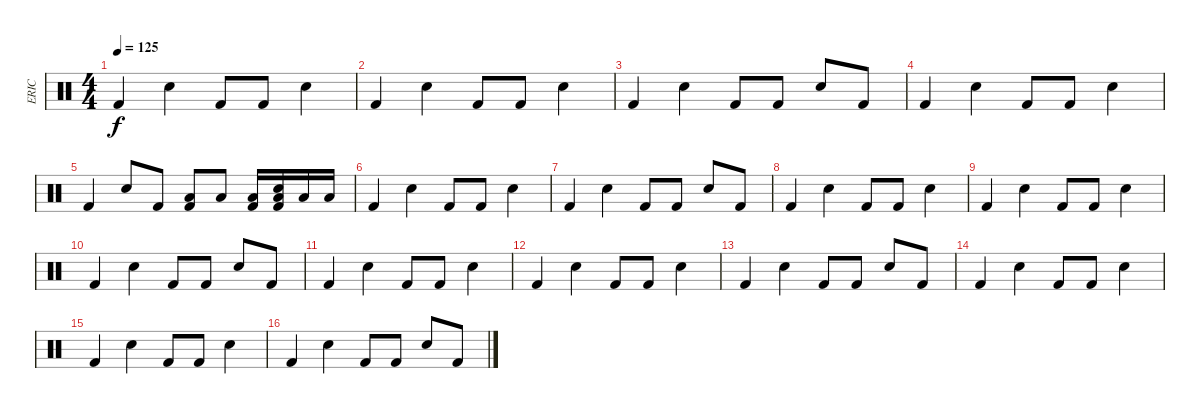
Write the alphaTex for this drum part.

\track ("ERIC" "ERIC") {instrument percussion}
\staff {score}
\articulation defaults
\ts (4 4)
\tempo 125
\clef neutral
\ks c "Kick (hit) 2".4{dy f} "Electric Snare (hit)".4 "Kick (hit) 2".8 "Kick (hit) 2".8 "Electric Snare (hit)".4
|
"Kick (hit) 2".4 "Electric Snare (hit)".4 "Kick (hit) 2".8 "Kick (hit) 2".8 "Electric Snare (hit)".4 |
"Kick (hit) 2".4 "Electric Snare (hit)".4 "Kick (hit) 2".8 "Kick (hit) 2".8 "Electric Snare (hit)".8 "Kick (hit) 2".8 |
"Kick (hit) 2".4 "Electric Snare (hit)".4 "Kick (hit) 2".8 "Kick (hit) 2".8 "Electric Snare (hit)".4 |
"Kick (hit) 2".4 "Electric Snare (hit)".8 "Kick (hit) 2".8 ("Low Floor Tom (hit)" "Kick (hit) 2").8 "Low Floor Tom (hit)".8 ("Low Floor Tom (hit)" "Kick (hit) 2").16 ("Electric Snare (hit)" "Low Floor Tom (hit)" "Kick (hit) 2").16 "Low Tom (hit)".16 "Low Floor Tom (hit)".16 |
"Kick (hit) 2".4 "Electric Snare (hit)".4 "Kick (hit) 2".8 "Kick (hit) 2".8 "Electric Snare (hit)".4 |
"Kick (hit) 2".4 "Electric Snare (hit)".4 "Kick (hit) 2".8 "Kick (hit) 2".8 "Electric Snare (hit)".8 "Kick (hit) 2".8 |
"Kick (hit) 2".4 "Electric Snare (hit)".4 "Kick (hit) 2".8 "Kick (hit) 2".8 "Electric Snare (hit)".4 |
"Kick (hit) 2".4 "Electric Snare (hit)".4 "Kick (hit) 2".8 "Kick (hit) 2".8 "Electric Snare (hit)".4 |
"Kick (hit) 2".4 "Electric Snare (hit)".4 "Kick (hit) 2".8 "Kick (hit) 2".8 "Electric Snare (hit)".8 "Kick (hit) 2".8 |
"Kick (hit) 2".4 "Electric Snare (hit)".4 "Kick (hit) 2".8 "Kick (hit) 2".8 "Electric Snare (hit)".4 |
"Kick (hit) 2".4 "Electric Snare (hit)".4 "Kick (hit) 2".8 "Kick (hit) 2".8 "Electric Snare (hit)".4 |
"Kick (hit) 2".4 "Electric Snare (hit)".4 "Kick (hit) 2".8 "Kick (hit) 2".8 "Electric Snare (hit)".8 "Kick (hit) 2".8 |
"Kick (hit) 2".4 "Electric Snare (hit)".4 "Kick (hit) 2".8 "Kick (hit) 2".8 "Electric Snare (hit)".4 |
"Kick (hit) 2".4 "Electric Snare (hit)".4 "Kick (hit) 2".8 "Kick (hit) 2".8 "Electric Snare (hit)".4 |
"Kick (hit) 2".4 "Electric Snare (hit)".4 "Kick (hit) 2".8 "Kick (hit) 2".8 "Electric Snare (hit)".8 "Kick (hit) 2".8
